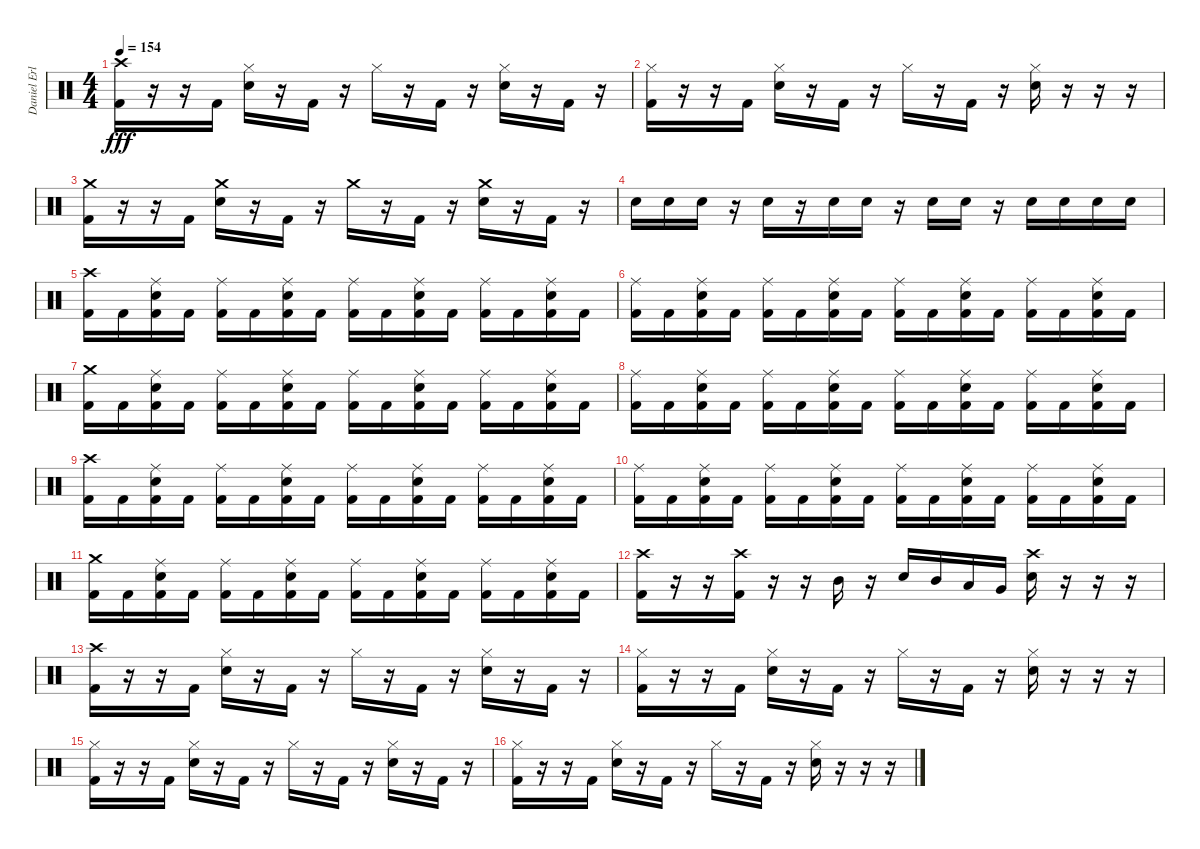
\track ("Daniel Erlandsson" "Daniel Erl") {instrument percussion}
\staff {score}
\articulation defaults
\ts (4 4)
\tempo 154
\clef neutral
\ks c
("Crash high (hit)" "Kick (hit) 2").16{dy fff} r.16 r.16 "Kick (hit) 2".16 ("Hi-Hat (closed)" "Electric Snare (hit)").16 r.16 "Kick (hit) 2".16 r.16 "Hi-Hat (closed)".16 r.16 "Kick (hit) 2".16 r.16 ("Hi-Hat (closed)" "Electric Snare (hit)").16 r.16 "Kick (hit) 2".16 r.16 |
("Hi-Hat (closed)" "Kick (hit) 2").16 r.16 r.16 "Kick (hit) 2".16 ("Hi-Hat (closed)" "Electric Snare (hit)").16 r.16 "Kick (hit) 2".16 r.16 "Hi-Hat (closed)".16 r.16 "Kick (hit) 2".16 r.16 ("Hi-Hat (closed)" "Electric Snare (hit)").16 r.16 r.16 r.16 |
("Crash medium (hit)" "Kick (hit) 2").16 r.16 r.16 "Kick (hit) 2".16 ("Crash medium (hit)" "Electric Snare (hit)").16 r.16 "Kick (hit) 2".16 r.16 "Crash medium (hit)".16 r.16 "Kick (hit) 2".16 r.16 ("Crash medium (hit)" "Electric Snare (hit)").16 r.16 "Kick (hit) 2".16 r.16 |
"Electric Snare (hit)".16 "Electric Snare (hit)".16 "Electric Snare (hit)".16 r.16 "Electric Snare (hit)".16 r.16 "Electric Snare (hit)".16 "Electric Snare (hit)".16 r.16 "Electric Snare (hit)".16 "Electric Snare (hit)".16 r.16 "Electric Snare (hit)".16 "Electric Snare (hit)".16 "Electric Snare (hit)".16 "Electric Snare (hit)".16 |
("Crash high (hit)" "Kick (hit) 2").16 "Kick (hit) 2".16 ("Ride (middle)" "Electric Snare (hit)" "Kick (hit) 2").16 "Kick (hit) 2".16 ("Ride (middle)" "Kick (hit) 2").16 "Kick (hit) 2".16 ("Ride (middle)" "Electric Snare (hit)" "Kick (hit) 2").16 "Kick (hit) 2".16 ("Ride (middle)" "Kick (hit) 2").16 "Kick (hit) 2".16 ("Ride (middle)" "Electric Snare (hit)" "Kick (hit) 2").16 "Kick (hit) 2".16 ("Ride (middle)" "Kick (hit) 2").16 "Kick (hit) 2".16 ("Ride (middle)" "Electric Snare (hit)" "Kick (hit) 2").16 "Kick (hit) 2".16 |
("Ride (middle)" "Kick (hit) 2").16 "Kick (hit) 2".16 ("Ride (middle)" "Electric Snare (hit)" "Kick (hit) 2").16 "Kick (hit) 2".16 ("Ride (middle)" "Kick (hit) 2").16 "Kick (hit) 2".16 ("Ride (middle)" "Electric Snare (hit)" "Kick (hit) 2").16 "Kick (hit) 2".16 ("Ride (middle)" "Kick (hit) 2").16 "Kick (hit) 2".16 ("Ride (middle)" "Electric Snare (hit)" "Kick (hit) 2").16 "Kick (hit) 2".16 ("Ride (middle)" "Kick (hit) 2").16 "Kick (hit) 2".16 ("Ride (middle)" "Electric Snare (hit)" "Kick (hit) 2").16 "Kick (hit) 2".16 |
("Crash medium (hit)" "Kick (hit) 2").16 "Kick (hit) 2".16 ("Ride (middle)" "Electric Snare (hit)" "Kick (hit) 2").16 "Kick (hit) 2".16 ("Ride (middle)" "Kick (hit) 2").16 "Kick (hit) 2".16 ("Ride (middle)" "Electric Snare (hit)" "Kick (hit) 2").16 "Kick (hit) 2".16 ("Ride (middle)" "Kick (hit) 2").16 "Kick (hit) 2".16 ("Ride (middle)" "Electric Snare (hit)" "Kick (hit) 2").16 "Kick (hit) 2".16 ("Ride (middle)" "Kick (hit) 2").16 "Kick (hit) 2".16 ("Ride (middle)" "Electric Snare (hit)" "Kick (hit) 2").16 "Kick (hit) 2".16 |
("Ride (middle)" "Kick (hit) 2").16 "Kick (hit) 2".16 ("Ride (middle)" "Electric Snare (hit)" "Kick (hit) 2").16 "Kick (hit) 2".16 ("Ride (middle)" "Kick (hit) 2").16 "Kick (hit) 2".16 ("Ride (middle)" "Electric Snare (hit)" "Kick (hit) 2").16 "Kick (hit) 2".16 ("Ride (middle)" "Kick (hit) 2").16 "Kick (hit) 2".16 ("Ride (middle)" "Electric Snare (hit)" "Kick (hit) 2").16 "Kick (hit) 2".16 ("Ride (middle)" "Kick (hit) 2").16 "Kick (hit) 2".16 ("Ride (middle)" "Electric Snare (hit)" "Kick (hit) 2").16 "Kick (hit) 2".16 |
("Crash high (hit)" "Kick (hit) 2").16 "Kick (hit) 2".16 ("Ride (middle)" "Electric Snare (hit)" "Kick (hit) 2").16 "Kick (hit) 2".16 ("Ride (middle)" "Kick (hit) 2").16 "Kick (hit) 2".16 ("Ride (middle)" "Electric Snare (hit)" "Kick (hit) 2").16 "Kick (hit) 2".16 ("Ride (middle)" "Kick (hit) 2").16 "Kick (hit) 2".16 ("Ride (middle)" "Electric Snare (hit)" "Kick (hit) 2").16 "Kick (hit) 2".16 ("Ride (middle)" "Kick (hit) 2").16 "Kick (hit) 2".16 ("Ride (middle)" "Electric Snare (hit)" "Kick (hit) 2").16 "Kick (hit) 2".16 |
("Ride (middle)" "Kick (hit) 2").16 "Kick (hit) 2".16 ("Ride (middle)" "Electric Snare (hit)" "Kick (hit) 2").16 "Kick (hit) 2".16 ("Ride (middle)" "Kick (hit) 2").16 "Kick (hit) 2".16 ("Ride (middle)" "Electric Snare (hit)" "Kick (hit) 2").16 "Kick (hit) 2".16 ("Ride (middle)" "Kick (hit) 2").16 "Kick (hit) 2".16 ("Ride (middle)" "Electric Snare (hit)" "Kick (hit) 2").16 "Kick (hit) 2".16 ("Ride (middle)" "Kick (hit) 2").16 "Kick (hit) 2".16 ("Ride (middle)" "Electric Snare (hit)" "Kick (hit) 2").16 "Kick (hit) 2".16 |
("Crash medium (hit)" "Kick (hit) 2").16 "Kick (hit) 2".16 ("Ride (middle)" "Electric Snare (hit)" "Kick (hit) 2").16 "Kick (hit) 2".16 ("Ride (middle)" "Kick (hit) 2").16 "Kick (hit) 2".16 ("Ride (middle)" "Electric Snare (hit)" "Kick (hit) 2").16 "Kick (hit) 2".16 ("Ride (middle)" "Kick (hit) 2").16 "Kick (hit) 2".16 ("Ride (middle)" "Electric Snare (hit)" "Kick (hit) 2").16 "Kick (hit) 2".16 ("Ride (middle)" "Kick (hit) 2").16 "Kick (hit) 2".16 ("Ride (middle)" "Electric Snare (hit)" "Kick (hit) 2").16 "Kick (hit) 2".16 |
("Crash high (hit)" "Kick (hit) 2").16 r.16 r.16 ("Crash high (hit)" "Kick (hit) 2").16 r.16 r.16 "Mid Tom (hit)".16 r.16 "Electric Snare (hit)".16 "Mid Tom (hit)".16 "Low Tom (hit)".16 "Very Low Tom (hit)".16 ("Crash high (hit)" "Electric Snare (hit)").16 r.16 r.16 r.16 |
("Crash high (hit)" "Kick (hit) 2").16 r.16 r.16 "Kick (hit) 2".16 ("Hi-Hat (closed)" "Electric Snare (hit)").16 r.16 "Kick (hit) 2".16 r.16 "Hi-Hat (closed)".16 r.16 "Kick (hit) 2".16 r.16 ("Hi-Hat (closed)" "Electric Snare (hit)").16 r.16 "Kick (hit) 2".16 r.16 |
("Hi-Hat (closed)" "Kick (hit) 2").16 r.16 r.16 "Kick (hit) 2".16 ("Hi-Hat (closed)" "Electric Snare (hit)").16 r.16 "Kick (hit) 2".16 r.16 "Hi-Hat (closed)".16 r.16 "Kick (hit) 2".16 r.16 ("Hi-Hat (closed)" "Electric Snare (hit)").16 r.16 r.16 r.16 |
("Hi-Hat (closed)" "Kick (hit) 2").16 r.16 r.16 "Kick (hit) 2".16 ("Hi-Hat (closed)" "Electric Snare (hit)").16 r.16 "Kick (hit) 2".16 r.16 "Hi-Hat (closed)".16 r.16 "Kick (hit) 2".16 r.16 ("Hi-Hat (closed)" "Electric Snare (hit)").16 r.16 "Kick (hit) 2".16 r.16 |
("Hi-Hat (closed)" "Kick (hit) 2").16 r.16 r.16 "Kick (hit) 2".16 ("Hi-Hat (closed)" "Electric Snare (hit)").16 r.16 "Kick (hit) 2".16 r.16 "Hi-Hat (closed)".16 r.16 "Kick (hit) 2".16 r.16 ("Hi-Hat (closed)" "Electric Snare (hit)").16 r.16 r.16 r.16
